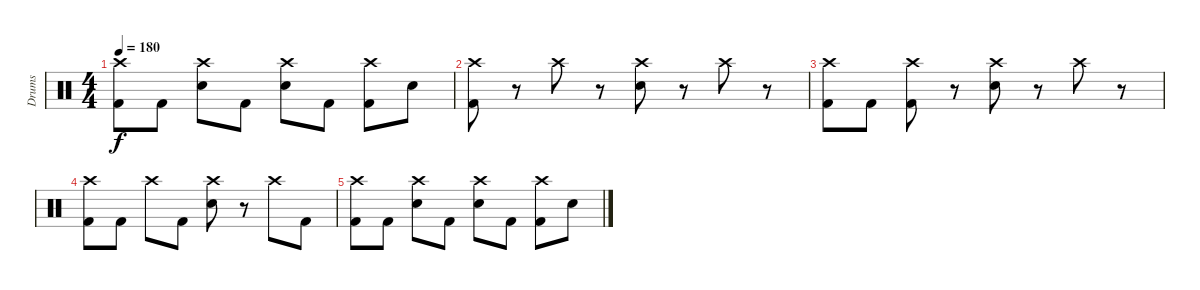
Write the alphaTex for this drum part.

\track ("Drums" "Drums") {instrument percussion}
\staff {score}
\articulation defaults
\ts (4 4)
\tempo 180
\clef neutral
\ks c
("Crash high (hit)" "Kick (hit) 2").8{dy f} "Kick (hit) 2".8 ("Electric Snare (hit)" "Crash high (hit)").8 "Kick (hit) 2".8 ("Electric Snare (hit)" "Crash high (hit)").8 "Kick (hit) 2".8 ("Crash high (hit)" "Kick (hit) 2").8 "Electric Snare (hit)".8 |
("Crash high (hit)" "Kick (hit) 2").8 r.8 "Crash high (hit)".8 r.8 ("Crash high (hit)" "Electric Snare (hit)").8 r.8 "Crash high (hit)".8 r.8 |
("Crash high (hit)" "Kick (hit) 2").8 "Kick (hit) 2".8 ("Crash high (hit)" "Kick (hit) 2").8 r.8 ("Crash high (hit)" "Electric Snare (hit)").8 r.8 "Crash high (hit)".8 r.8 |
("Crash high (hit)" "Kick (hit) 2").8 "Kick (hit) 2".8 "Crash high (hit)".8 "Kick (hit) 2".8 ("Crash high (hit)" "Electric Snare (hit)").8 r.8 "Crash high (hit)".8 "Kick (hit) 2".8 |
("Crash high (hit)" "Kick (hit) 2").8 "Kick (hit) 2".8 ("Electric Snare (hit)" "Crash high (hit)").8 "Kick (hit) 2".8 ("Electric Snare (hit)" "Crash high (hit)").8 "Kick (hit) 2".8 ("Crash high (hit)" "Kick (hit) 2").8 "Electric Snare (hit)".8
